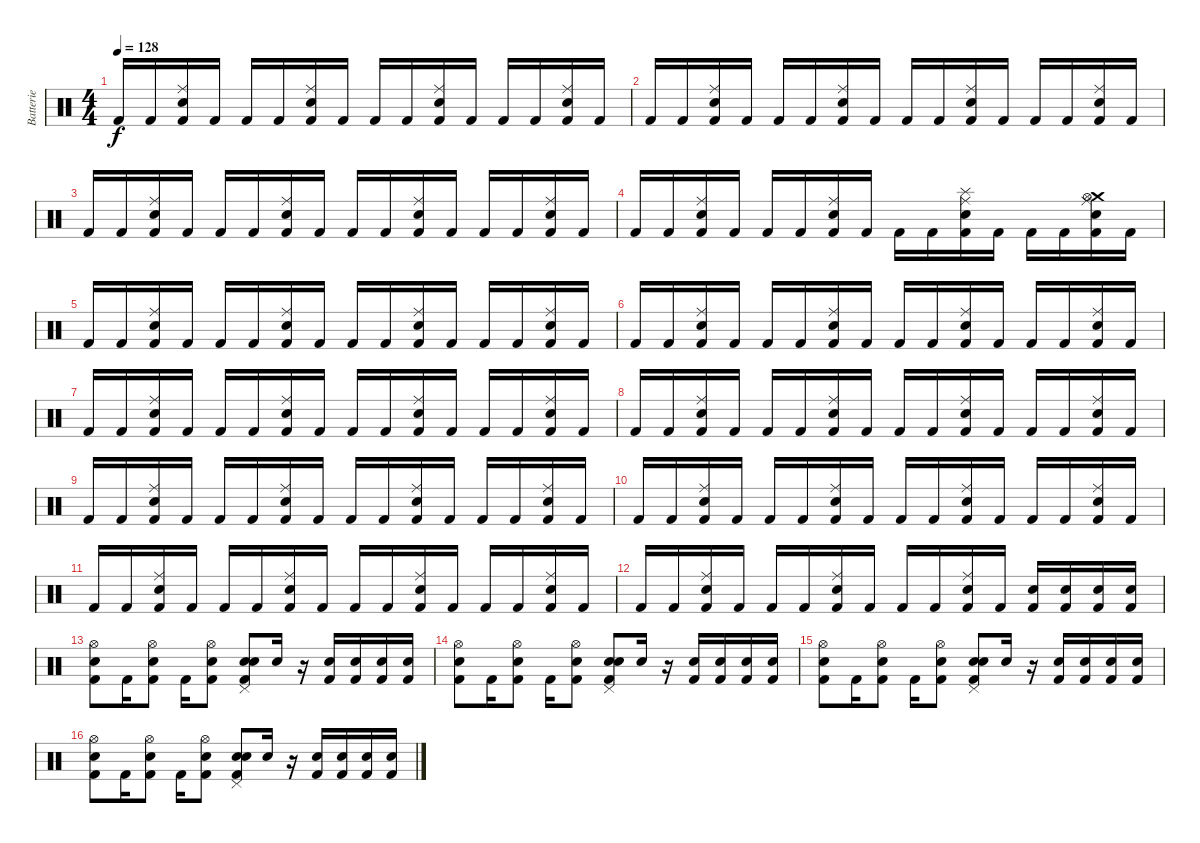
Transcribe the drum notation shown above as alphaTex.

\track ("Batterie" "Batterie") {instrument percussion}
\staff {score}
\articulation defaults
\ts (4 4)
\tempo 128
\clef neutral
\ks c "Kick (hit) 2".16{dy f} "Kick (hit) 2".16
("Ride (middle)" "Electric Snare (hit)" "Kick (hit) 2").16 "Kick (hit) 2".16 "Kick (hit) 2".16 "Kick (hit) 2".16 ("Ride (middle)" "Electric Snare (hit)" "Kick (hit) 2").16 "Kick (hit) 2".16 "Kick (hit) 2".16 "Kick (hit) 2".16 ("Ride (middle)" "Electric Snare (hit)" "Kick (hit) 2").16 "Kick (hit) 2".16 "Kick (hit) 2".16 "Kick (hit) 2".16 ("Ride (middle)" "Electric Snare (hit)" "Kick (hit) 2").16 "Kick (hit) 2".16 |
"Kick (hit) 2".16 "Kick (hit) 2".16 ("Ride (middle)" "Electric Snare (hit)" "Kick (hit) 2").16 "Kick (hit) 2".16 "Kick (hit) 2".16 "Kick (hit) 2".16 ("Ride (middle)" "Electric Snare (hit)" "Kick (hit) 2").16 "Kick (hit) 2".16 "Kick (hit) 2".16 "Kick (hit) 2".16 ("Ride (middle)" "Electric Snare (hit)" "Kick (hit) 2").16 "Kick (hit) 2".16 "Kick (hit) 2".16 "Kick (hit) 2".16 ("Ride (middle)" "Electric Snare (hit)" "Kick (hit) 2").16 "Kick (hit) 2".16 |
"Kick (hit) 2".16 "Kick (hit) 2".16 ("Ride (middle)" "Electric Snare (hit)" "Kick (hit) 2").16 "Kick (hit) 2".16 "Kick (hit) 2".16 "Kick (hit) 2".16 ("Ride (middle)" "Electric Snare (hit)" "Kick (hit) 2").16 "Kick (hit) 2".16 "Kick (hit) 2".16 "Kick (hit) 2".16 ("Ride (middle)" "Electric Snare (hit)" "Kick (hit) 2").16 "Kick (hit) 2".16 "Kick (hit) 2".16 "Kick (hit) 2".16 ("Ride (middle)" "Electric Snare (hit)" "Kick (hit) 2").16 "Kick (hit) 2".16 |
"Kick (hit) 2".16 "Kick (hit) 2".16 ("Ride (middle)" "Electric Snare (hit)" "Kick (hit) 2").16 "Kick (hit) 2".16 "Kick (hit) 2".16 "Kick (hit) 2".16 ("Ride (middle)" "Electric Snare (hit)" "Kick (hit) 2").16 "Kick (hit) 2".16 "Kick (hit) 2".16 "Kick (hit) 2".16 ("Splash (hit)" "Ride (middle)" "Electric Snare (hit)" "Kick (hit) 2").16 "Kick (hit) 2".16 "Kick (hit) 2".16 "Kick (hit) 2".16 ("Crash medium (hit)" "Hi-Hat (open)" "Ride (middle)" "Electric Snare (hit)" "Kick (hit) 2").16 "Kick (hit) 2".16 |
"Kick (hit) 2".16 "Kick (hit) 2".16 ("Ride (middle)" "Electric Snare (hit)" "Kick (hit) 2").16 "Kick (hit) 2".16 "Kick (hit) 2".16 "Kick (hit) 2".16 ("Ride (middle)" "Electric Snare (hit)" "Kick (hit) 2").16 "Kick (hit) 2".16 "Kick (hit) 2".16 "Kick (hit) 2".16 ("Ride (middle)" "Electric Snare (hit)" "Kick (hit) 2").16 "Kick (hit) 2".16 "Kick (hit) 2".16 "Kick (hit) 2".16 ("Ride (middle)" "Electric Snare (hit)" "Kick (hit) 2").16 "Kick (hit) 2".16 |
"Kick (hit) 2".16 "Kick (hit) 2".16 ("Ride (middle)" "Electric Snare (hit)" "Kick (hit) 2").16 "Kick (hit) 2".16 "Kick (hit) 2".16 "Kick (hit) 2".16 ("Ride (middle)" "Electric Snare (hit)" "Kick (hit) 2").16 "Kick (hit) 2".16 "Kick (hit) 2".16 "Kick (hit) 2".16 ("Ride (middle)" "Electric Snare (hit)" "Kick (hit) 2").16 "Kick (hit) 2".16 "Kick (hit) 2".16 "Kick (hit) 2".16 ("Ride (middle)" "Electric Snare (hit)" "Kick (hit) 2").16 "Kick (hit) 2".16 |
"Kick (hit) 2".16 "Kick (hit) 2".16 ("Ride (middle)" "Electric Snare (hit)" "Kick (hit) 2").16 "Kick (hit) 2".16 "Kick (hit) 2".16 "Kick (hit) 2".16 ("Ride (middle)" "Electric Snare (hit)" "Kick (hit) 2").16 "Kick (hit) 2".16 "Kick (hit) 2".16 "Kick (hit) 2".16 ("Ride (middle)" "Electric Snare (hit)" "Kick (hit) 2").16 "Kick (hit) 2".16 "Kick (hit) 2".16 "Kick (hit) 2".16 ("Ride (middle)" "Electric Snare (hit)" "Kick (hit) 2").16 "Kick (hit) 2".16 |
"Kick (hit) 2".16 "Kick (hit) 2".16 ("Ride (middle)" "Electric Snare (hit)" "Kick (hit) 2").16 "Kick (hit) 2".16 "Kick (hit) 2".16 "Kick (hit) 2".16 ("Ride (middle)" "Electric Snare (hit)" "Kick (hit) 2").16 "Kick (hit) 2".16 "Kick (hit) 2".16 "Kick (hit) 2".16 ("Ride (middle)" "Electric Snare (hit)" "Kick (hit) 2").16 "Kick (hit) 2".16 "Kick (hit) 2".16 "Kick (hit) 2".16 ("Ride (middle)" "Electric Snare (hit)" "Kick (hit) 2").16 "Kick (hit) 2".16 |
"Kick (hit) 2".16 "Kick (hit) 2".16 ("Ride (middle)" "Electric Snare (hit)" "Kick (hit) 2").16 "Kick (hit) 2".16 "Kick (hit) 2".16 "Kick (hit) 2".16 ("Ride (middle)" "Electric Snare (hit)" "Kick (hit) 2").16 "Kick (hit) 2".16 "Kick (hit) 2".16 "Kick (hit) 2".16 ("Ride (middle)" "Electric Snare (hit)" "Kick (hit) 2").16 "Kick (hit) 2".16 "Kick (hit) 2".16 "Kick (hit) 2".16 ("Ride (middle)" "Electric Snare (hit)" "Kick (hit) 2").16 "Kick (hit) 2".16 |
"Kick (hit) 2".16 "Kick (hit) 2".16 ("Ride (middle)" "Electric Snare (hit)" "Kick (hit) 2").16 "Kick (hit) 2".16 "Kick (hit) 2".16 "Kick (hit) 2".16 ("Ride (middle)" "Electric Snare (hit)" "Kick (hit) 2").16 "Kick (hit) 2".16 "Kick (hit) 2".16 "Kick (hit) 2".16 ("Ride (middle)" "Electric Snare (hit)" "Kick (hit) 2").16 "Kick (hit) 2".16 "Kick (hit) 2".16 "Kick (hit) 2".16 ("Ride (middle)" "Electric Snare (hit)" "Kick (hit) 2").16 "Kick (hit) 2".16 |
"Kick (hit) 2".16 "Kick (hit) 2".16 ("Ride (middle)" "Electric Snare (hit)" "Kick (hit) 2").16 "Kick (hit) 2".16 "Kick (hit) 2".16 "Kick (hit) 2".16 ("Ride (middle)" "Electric Snare (hit)" "Kick (hit) 2").16 "Kick (hit) 2".16 "Kick (hit) 2".16 "Kick (hit) 2".16 ("Ride (middle)" "Electric Snare (hit)" "Kick (hit) 2").16 "Kick (hit) 2".16 "Kick (hit) 2".16 "Kick (hit) 2".16 ("Ride (middle)" "Electric Snare (hit)" "Kick (hit) 2").16 "Kick (hit) 2".16 |
"Kick (hit) 2".16 "Kick (hit) 2".16 ("Ride (middle)" "Electric Snare (hit)" "Kick (hit) 2").16 "Kick (hit) 2".16 "Kick (hit) 2".16 "Kick (hit) 2".16 ("Ride (middle)" "Electric Snare (hit)" "Kick (hit) 2").16 "Kick (hit) 2".16 "Kick (hit) 2".16 "Kick (hit) 2".16 ("Ride (middle)" "Electric Snare (hit)" "Kick (hit) 2").16 "Kick (hit) 2".16 ("Electric Snare (hit)" "Kick (hit) 2").16 ("Electric Snare (hit)" "Kick (hit) 2").16 ("Electric Snare (hit)" "Kick (hit) 2").16 ("Electric Snare (hit)" "Kick (hit) 2").16 |
("Hi-Hat (open)" "Electric Snare (hit)" "Kick (hit) 2").8 "Kick (hit) 2".16 ("Hi-Hat (open)" "Electric Snare (hit)" "Kick (hit) 2").8 "Kick (hit) 2".16 ("Hi-Hat (open)" "Electric Snare (hit)" "Kick (hit) 2").8 ("Pedal Hi-Hat (hit)" "Kick (hit) 2" "Snare (hit) 2" "Electric Snare (hit)").8 "Electric Snare (hit)".16 r.16 ("Kick (hit) 2" "Electric Snare (hit)").16 ("Kick (hit) 2" "Electric Snare (hit)").16 ("Kick (hit) 2" "Electric Snare (hit)").16 ("Kick (hit) 2" "Electric Snare (hit)").16 |
("Hi-Hat (open)" "Electric Snare (hit)" "Kick (hit) 2").8 "Kick (hit) 2".16 ("Hi-Hat (open)" "Electric Snare (hit)" "Kick (hit) 2").8 "Kick (hit) 2".16 ("Hi-Hat (open)" "Electric Snare (hit)" "Kick (hit) 2").8 ("Pedal Hi-Hat (hit)" "Kick (hit) 2" "Snare (hit) 2" "Electric Snare (hit)").8 "Electric Snare (hit)".16 r.16 ("Kick (hit) 2" "Electric Snare (hit)").16 ("Kick (hit) 2" "Electric Snare (hit)").16 ("Kick (hit) 2" "Electric Snare (hit)").16 ("Kick (hit) 2" "Electric Snare (hit)").16 |
("Hi-Hat (open)" "Electric Snare (hit)" "Kick (hit) 2").8 "Kick (hit) 2".16 ("Hi-Hat (open)" "Electric Snare (hit)" "Kick (hit) 2").8 "Kick (hit) 2".16 ("Hi-Hat (open)" "Electric Snare (hit)" "Kick (hit) 2").8 ("Pedal Hi-Hat (hit)" "Kick (hit) 2" "Snare (hit) 2" "Electric Snare (hit)").8 "Electric Snare (hit)".16 r.16 ("Kick (hit) 2" "Electric Snare (hit)").16 ("Kick (hit) 2" "Electric Snare (hit)").16 ("Kick (hit) 2" "Electric Snare (hit)").16 ("Kick (hit) 2" "Electric Snare (hit)").16 |
("Hi-Hat (open)" "Electric Snare (hit)" "Kick (hit) 2").8 "Kick (hit) 2".16 ("Hi-Hat (open)" "Electric Snare (hit)" "Kick (hit) 2").8 "Kick (hit) 2".16 ("Hi-Hat (open)" "Electric Snare (hit)" "Kick (hit) 2").8 ("Pedal Hi-Hat (hit)" "Kick (hit) 2" "Snare (hit) 2" "Electric Snare (hit)").8 "Electric Snare (hit)".16 r.16 ("Kick (hit) 2" "Electric Snare (hit)").16 ("Kick (hit) 2" "Electric Snare (hit)").16 ("Kick (hit) 2" "Electric Snare (hit)").16 ("Kick (hit) 2" "Electric Snare (hit)").16
